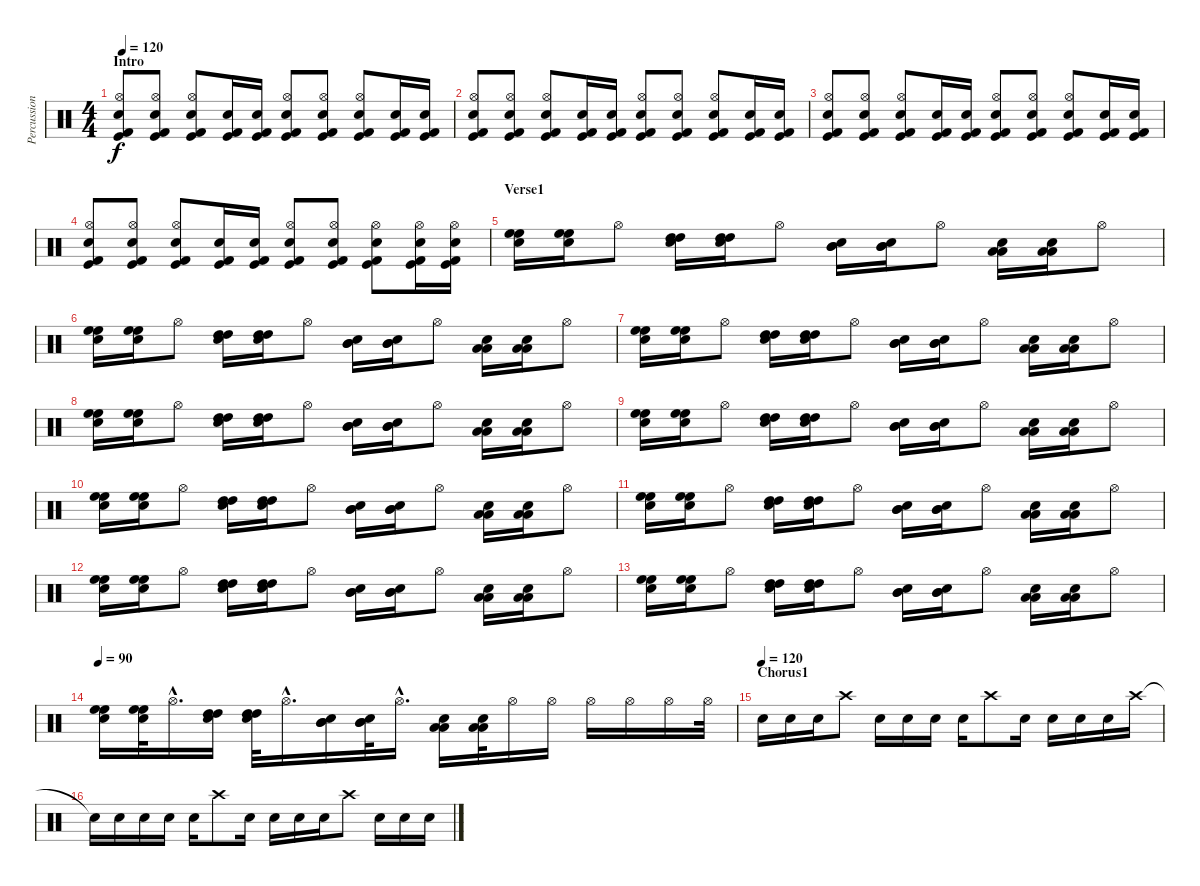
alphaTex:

\track ("Percussion" "Percussion") {instrument percussion}
\staff {score}
\articulation defaults
\ts (4 4)
\section ("" "Intro")
\tempo 120
\clef neutral
\ks c
("Snare (hit) 2" "Hi-Hat (open)" "Kick (hit) 2" "Kick (hit)").8{dy f} ("Snare (hit) 2" "Hi-Hat (open)" "Kick (hit) 2" "Kick (hit)").8 ("Snare (hit) 2" "Hi-Hat (open)" "Kick (hit) 2" "Kick (hit)").8 ("Kick (hit) 2" "Kick (hit)" "Electric Snare (hit)").16 ("Kick (hit) 2" "Kick (hit)" "Electric Snare (hit)").16 ("Snare (hit) 2" "Hi-Hat (open)" "Kick (hit) 2" "Kick (hit)").8 ("Snare (hit) 2" "Hi-Hat (open)" "Kick (hit) 2" "Kick (hit)").8 ("Snare (hit) 2" "Hi-Hat (open)" "Kick (hit) 2" "Kick (hit)").8 ("Kick (hit) 2" "Kick (hit)" "Electric Snare (hit)").16 ("Kick (hit) 2" "Kick (hit)" "Electric Snare (hit)").16 |
("Snare (hit) 2" "Hi-Hat (open)" "Kick (hit) 2" "Kick (hit)").8 ("Snare (hit) 2" "Hi-Hat (open)" "Kick (hit) 2" "Kick (hit)").8 ("Snare (hit) 2" "Hi-Hat (open)" "Kick (hit) 2" "Kick (hit)").8 ("Kick (hit) 2" "Kick (hit)" "Electric Snare (hit)").16 ("Kick (hit) 2" "Kick (hit)" "Electric Snare (hit)").16 ("Snare (hit) 2" "Hi-Hat (open)" "Kick (hit) 2" "Kick (hit)").8 ("Snare (hit) 2" "Hi-Hat (open)" "Kick (hit) 2" "Kick (hit)").8 ("Snare (hit) 2" "Hi-Hat (open)" "Kick (hit) 2" "Kick (hit)").8 ("Kick (hit) 2" "Kick (hit)" "Electric Snare (hit)").16 ("Kick (hit) 2" "Kick (hit)" "Electric Snare (hit)").16 |
("Snare (hit) 2" "Hi-Hat (open)" "Kick (hit) 2" "Kick (hit)").8 ("Snare (hit) 2" "Hi-Hat (open)" "Kick (hit) 2" "Kick (hit)").8 ("Snare (hit) 2" "Hi-Hat (open)" "Kick (hit) 2" "Kick (hit)").8 ("Kick (hit) 2" "Kick (hit)" "Electric Snare (hit)").16 ("Kick (hit) 2" "Kick (hit)" "Electric Snare (hit)").16 ("Snare (hit) 2" "Hi-Hat (open)" "Kick (hit) 2" "Kick (hit)").8 ("Snare (hit) 2" "Hi-Hat (open)" "Kick (hit) 2" "Kick (hit)").8 ("Snare (hit) 2" "Hi-Hat (open)" "Kick (hit) 2" "Kick (hit)").8 ("Kick (hit) 2" "Kick (hit)" "Electric Snare (hit)").16 ("Kick (hit) 2" "Kick (hit)" "Electric Snare (hit)").16 |
("Snare (hit) 2" "Hi-Hat (open)" "Kick (hit) 2" "Kick (hit)").8 ("Snare (hit) 2" "Hi-Hat (open)" "Kick (hit) 2" "Kick (hit)").8 ("Snare (hit) 2" "Hi-Hat (open)" "Kick (hit) 2" "Kick (hit)").8 ("Kick (hit) 2" "Kick (hit)" "Electric Snare (hit)").16 ("Kick (hit) 2" "Kick (hit)" "Electric Snare (hit)").16 ("Snare (hit) 2" "Hi-Hat (open)" "Kick (hit) 2" "Kick (hit)").8 ("Snare (hit) 2" "Hi-Hat (open)" "Kick (hit) 2" "Kick (hit)").8 ("Snare (hit) 2" "Hi-Hat (open)" "Kick (hit) 2" "Kick (hit)").8 ("Kick (hit) 2" "Kick (hit)" "Electric Snare (hit)" "Hi-Hat (open)").16 ("Kick (hit) 2" "Kick (hit)" "Electric Snare (hit)" "Hi-Hat (open)").16 |
\section ("" "Verse1")
("Snare (hit) 2" "High Floor Tom (hit)" "High Floor Tom (hit)").16 ("Snare (hit) 2" "High Floor Tom (hit)" "High Floor Tom (hit)").16 "Hi-Hat (open)".8 ("Snare (hit) 2" "High Tom (hit)" "High Tom (hit)").16 ("Snare (hit) 2" "High Tom (hit)" "High Tom (hit)").16 "Hi-Hat (open)".8 ("Snare (hit) 2" "Mid Tom (hit)" "Mid Tom (hit)").16 ("Snare (hit) 2" "Mid Tom (hit)" "Mid Tom (hit)").16 "Hi-Hat (open)".8 ("Snare (hit) 2" "Low Tom (hit)" "Low Tom (hit)").16 ("Snare (hit) 2" "Low Tom (hit)" "Low Tom (hit)").16 "Hi-Hat (open)".8 |
("Snare (hit) 2" "High Floor Tom (hit)" "High Floor Tom (hit)").16 ("Snare (hit) 2" "High Floor Tom (hit)" "High Floor Tom (hit)").16 "Hi-Hat (open)".8 ("Snare (hit) 2" "High Tom (hit)" "High Tom (hit)").16 ("Snare (hit) 2" "High Tom (hit)" "High Tom (hit)").16 "Hi-Hat (open)".8 ("Snare (hit) 2" "Mid Tom (hit)" "Mid Tom (hit)").16 ("Snare (hit) 2" "Mid Tom (hit)" "Mid Tom (hit)").16 "Hi-Hat (open)".8 ("Snare (hit) 2" "Low Tom (hit)" "Low Tom (hit)").16 ("Snare (hit) 2" "Low Tom (hit)" "Low Tom (hit)").16 "Hi-Hat (open)".8 |
("Snare (hit) 2" "High Floor Tom (hit)" "High Floor Tom (hit)").16 ("Snare (hit) 2" "High Floor Tom (hit)" "High Floor Tom (hit)").16 "Hi-Hat (open)".8 ("Snare (hit) 2" "High Tom (hit)" "High Tom (hit)").16 ("Snare (hit) 2" "High Tom (hit)" "High Tom (hit)").16 "Hi-Hat (open)".8 ("Snare (hit) 2" "Mid Tom (hit)" "Mid Tom (hit)").16 ("Snare (hit) 2" "Mid Tom (hit)" "Mid Tom (hit)").16 "Hi-Hat (open)".8 ("Snare (hit) 2" "Low Tom (hit)" "Low Tom (hit)").16 ("Snare (hit) 2" "Low Tom (hit)" "Low Tom (hit)").16 "Hi-Hat (open)".8 |
("Snare (hit) 2" "High Floor Tom (hit)" "High Floor Tom (hit)").16 ("Snare (hit) 2" "High Floor Tom (hit)" "High Floor Tom (hit)").16 "Hi-Hat (open)".8 ("Snare (hit) 2" "High Tom (hit)" "High Tom (hit)").16 ("Snare (hit) 2" "High Tom (hit)" "High Tom (hit)").16 "Hi-Hat (open)".8 ("Snare (hit) 2" "Mid Tom (hit)" "Mid Tom (hit)").16 ("Snare (hit) 2" "Mid Tom (hit)" "Mid Tom (hit)").16 "Hi-Hat (open)".8 ("Snare (hit) 2" "Low Tom (hit)" "Low Tom (hit)").16 ("Snare (hit) 2" "Low Tom (hit)" "Low Tom (hit)").16 "Hi-Hat (open)".8 |
("Snare (hit) 2" "High Floor Tom (hit)" "High Floor Tom (hit)").16 ("Snare (hit) 2" "High Floor Tom (hit)" "High Floor Tom (hit)").16 "Hi-Hat (open)".8 ("Snare (hit) 2" "High Tom (hit)" "High Tom (hit)").16 ("Snare (hit) 2" "High Tom (hit)" "High Tom (hit)").16 "Hi-Hat (open)".8 ("Snare (hit) 2" "Mid Tom (hit)" "Mid Tom (hit)").16 ("Snare (hit) 2" "Mid Tom (hit)" "Mid Tom (hit)").16 "Hi-Hat (open)".8 ("Snare (hit) 2" "Low Tom (hit)" "Low Tom (hit)").16 ("Snare (hit) 2" "Low Tom (hit)" "Low Tom (hit)").16 "Hi-Hat (open)".8 |
("Snare (hit) 2" "High Floor Tom (hit)" "High Floor Tom (hit)").16 ("Snare (hit) 2" "High Floor Tom (hit)" "High Floor Tom (hit)").16 "Hi-Hat (open)".8 ("Snare (hit) 2" "High Tom (hit)" "High Tom (hit)").16 ("Snare (hit) 2" "High Tom (hit)" "High Tom (hit)").16 "Hi-Hat (open)".8 ("Snare (hit) 2" "Mid Tom (hit)" "Mid Tom (hit)").16 ("Snare (hit) 2" "Mid Tom (hit)" "Mid Tom (hit)").16 "Hi-Hat (open)".8 ("Snare (hit) 2" "Low Tom (hit)" "Low Tom (hit)").16 ("Snare (hit) 2" "Low Tom (hit)" "Low Tom (hit)").16 "Hi-Hat (open)".8 |
("Snare (hit) 2" "High Floor Tom (hit)" "High Floor Tom (hit)").16 ("Snare (hit) 2" "High Floor Tom (hit)" "High Floor Tom (hit)").16 "Hi-Hat (open)".8 ("Snare (hit) 2" "High Tom (hit)" "High Tom (hit)").16 ("Snare (hit) 2" "High Tom (hit)" "High Tom (hit)").16 "Hi-Hat (open)".8 ("Snare (hit) 2" "Mid Tom (hit)" "Mid Tom (hit)").16 ("Snare (hit) 2" "Mid Tom (hit)" "Mid Tom (hit)").16 "Hi-Hat (open)".8 ("Snare (hit) 2" "Low Tom (hit)" "Low Tom (hit)").16 ("Snare (hit) 2" "Low Tom (hit)" "Low Tom (hit)").16 "Hi-Hat (open)".8 |
("Snare (hit) 2" "High Floor Tom (hit)" "High Floor Tom (hit)").16 ("Snare (hit) 2" "High Floor Tom (hit)" "High Floor Tom (hit)").16 "Hi-Hat (open)".8 ("Snare (hit) 2" "High Tom (hit)" "High Tom (hit)").16 ("Snare (hit) 2" "High Tom (hit)" "High Tom (hit)").16 "Hi-Hat (open)".8 ("Snare (hit) 2" "Mid Tom (hit)" "Mid Tom (hit)").16 ("Snare (hit) 2" "Mid Tom (hit)" "Mid Tom (hit)").16 "Hi-Hat (open)".8 ("Snare (hit) 2" "Low Tom (hit)" "Low Tom (hit)").16 ("Snare (hit) 2" "Low Tom (hit)" "Low Tom (hit)").16 "Hi-Hat (open)".8 |
("Snare (hit) 2" "High Floor Tom (hit)" "High Floor Tom (hit)").16 ("Snare (hit) 2" "High Floor Tom (hit)" "High Floor Tom (hit)").16 "Hi-Hat (open)".8 ("Snare (hit) 2" "High Tom (hit)" "High Tom (hit)").16 ("Snare (hit) 2" "High Tom (hit)" "High Tom (hit)").16 "Hi-Hat (open)".8 ("Snare (hit) 2" "Mid Tom (hit)" "Mid Tom (hit)").16 ("Snare (hit) 2" "Mid Tom (hit)" "Mid Tom (hit)").16 "Hi-Hat (open)".8 ("Snare (hit) 2" "Low Tom (hit)" "Low Tom (hit)").16 ("Snare (hit) 2" "Low Tom (hit)" "Low Tom (hit)").16 "Hi-Hat (open)".8 |
\tempo 90
("Snare (hit) 2" "High Floor Tom (hit)" "High Floor Tom (hit)").16 ("Snare (hit) 2" "High Floor Tom (hit)" "High Floor Tom (hit)").32 "Hi-Hat (open)"{hac}.16{d} ("Snare (hit) 2" "High Tom (hit)" "High Tom (hit)").16 ("Snare (hit) 2" "High Tom (hit)" "High Tom (hit)").32 "Hi-Hat (open)"{hac}.16{d} ("Snare (hit) 2" "Mid Tom (hit)" "Mid Tom (hit)").16 ("Snare (hit) 2" "Mid Tom (hit)" "Mid Tom (hit)").32 "Hi-Hat (open)"{hac}.16{d} ("Snare (hit) 2" "Low Tom (hit)" "Low Tom (hit)").16 ("Snare (hit) 2" "Low Tom (hit)" "Low Tom (hit)").32 "Hi-Hat (open)".16 "Hi-Hat (open)".16 "Hi-Hat (open)".16 "Hi-Hat (open)".16 "Hi-Hat (open)".16 "Hi-Hat (open)".32 |
\section ("" "Chorus1")
\tempo (120)
"Electric Snare (hit)".16 "Electric Snare (hit)".16 "Electric Snare (hit)".16 "Crash high (hit)".8 "Electric Snare (hit)".16 "Electric Snare (hit)".16 "Electric Snare (hit)".16 "Electric Snare (hit)".16 "Crash high (hit)".8 "Electric Snare (hit)".16 "Electric Snare (hit)".16 "Electric Snare (hit)".16 "Electric Snare (hit)".16 "Crash high (hit)".16 |
"Snare (hit)"{t}.16 "Electric Snare (hit)".16 "Electric Snare (hit)".16 "Electric Snare (hit)".16 "Electric Snare (hit)".16 "Crash high (hit)".8 "Electric Snare (hit)".16 "Electric Snare (hit)".16 "Electric Snare (hit)".16 "Electric Snare (hit)".16 "Crash high (hit)".8 "Electric Snare (hit)".16 "Electric Snare (hit)".16 "Electric Snare (hit)".16
